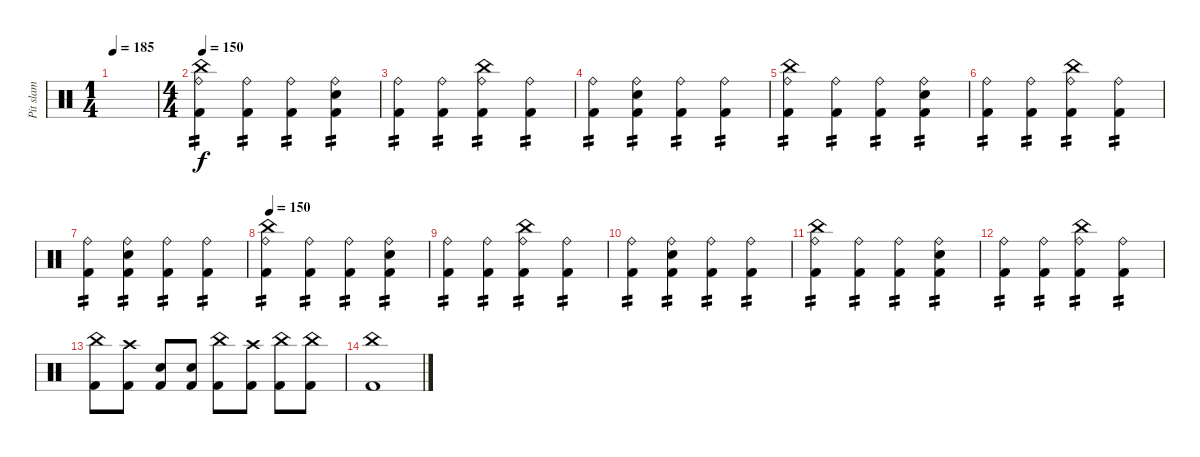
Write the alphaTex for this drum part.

\track ("Pit slam" "Pit slam") {instrument percussion}
\staff {score}
\articulation defaults
\ts (1 4)
\tempo 185
\clef neutral
\ks c
|
\ts (4 4)
\tempo 150
("China (hit)" "Ride (bell)" "Kick (hit) 2").4{tp 2} ("Ride (bell)" "Kick (hit) 2").4{tp 2} ("Ride (bell)" "Kick (hit) 2").4{tp 2} ("Electric Snare (hit)" "Ride (bell)" "Kick (hit) 2").4{tp 2} |
("Ride (bell)" "Kick (hit) 2").4{tp 2} ("Ride (bell)" "Kick (hit) 2").4{tp 2} ("China (hit)" "Ride (bell)" "Kick (hit) 2").4{tp 2} ("Ride (bell)" "Kick (hit) 2").4{tp 2} |
("Ride (bell)" "Kick (hit) 2").4{tp 2} ("Electric Snare (hit)" "Ride (bell)" "Kick (hit) 2").4{tp 2} ("Ride (bell)" "Kick (hit) 2").4{tp 2} ("Ride (bell)" "Kick (hit) 2").4{tp 2} |
("China (hit)" "Ride (bell)" "Kick (hit) 2").4{tp 2} ("Ride (bell)" "Kick (hit) 2").4{tp 2} ("Ride (bell)" "Kick (hit) 2").4{tp 2} ("Electric Snare (hit)" "Ride (bell)" "Kick (hit) 2").4{tp 2} |
("Ride (bell)" "Kick (hit) 2").4{tp 2} ("Ride (bell)" "Kick (hit) 2").4{tp 2} ("China (hit)" "Ride (bell)" "Kick (hit) 2").4{tp 2} ("Ride (bell)" "Kick (hit) 2").4{tp 2} |
("Ride (bell)" "Kick (hit) 2").4{tp 2} ("Electric Snare (hit)" "Ride (bell)" "Kick (hit) 2").4{tp 2} ("Ride (bell)" "Kick (hit) 2").4{tp 2} ("Ride (bell)" "Kick (hit) 2").4{tp 2} |
\tempo 150
("China (hit)" "Ride (bell)" "Kick (hit) 2").4{tp 2} ("Ride (bell)" "Kick (hit) 2").4{tp 2} ("Ride (bell)" "Kick (hit) 2").4{tp 2} ("Electric Snare (hit)" "Ride (bell)" "Kick (hit) 2").4{tp 2} |
("Ride (bell)" "Kick (hit) 2").4{tp 2} ("Ride (bell)" "Kick (hit) 2").4{tp 2} ("China (hit)" "Ride (bell)" "Kick (hit) 2").4{tp 2} ("Ride (bell)" "Kick (hit) 2").4{tp 2} |
("Ride (bell)" "Kick (hit) 2").4{tp 2} ("Electric Snare (hit)" "Ride (bell)" "Kick (hit) 2").4{tp 2} ("Ride (bell)" "Kick (hit) 2").4{tp 2} ("Ride (bell)" "Kick (hit) 2").4{tp 2} |
("China (hit)" "Ride (bell)" "Kick (hit) 2").4{tp 2} ("Ride (bell)" "Kick (hit) 2").4{tp 2} ("Ride (bell)" "Kick (hit) 2").4{tp 2} ("Electric Snare (hit)" "Ride (bell)" "Kick (hit) 2").4{tp 2} |
("Ride (bell)" "Kick (hit) 2").4{tp 2} ("Ride (bell)" "Kick (hit) 2").4{tp 2} ("China (hit)" "Ride (bell)" "Kick (hit) 2").4{tp 2} ("Ride (bell)" "Kick (hit) 2").4{tp 2} |
("China (hit)" "Kick (hit) 2").8 ("Crash high (hit)" "Kick (hit) 2").8 ("Electric Snare (hit)" "Kick (hit) 2").8 ("Electric Snare (hit)" "Kick (hit) 2").8 ("China (hit)" "Kick (hit) 2").8 ("Crash high (hit)" "Kick (hit) 2").8 ("China (hit)" "Kick (hit) 2").8 ("China (hit)" "Kick (hit) 2").8 |
("China (hit)" "Kick (hit) 2").1
